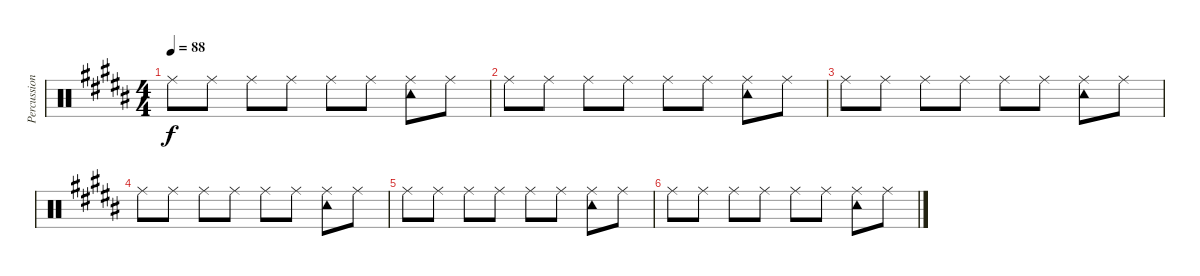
\track ("Percussions" "Percussion") {instrument percussion}
\staff {score}
\articulation defaults
\ts (4 4)
\tempo 88
\clef neutral
\ks b "Ride (middle)".8{dy f} "Ride (middle)".8 "Ride (middle)".8 "Ride (middle)".8 "Ride (middle)".8 "Ride (middle)".8
("Ride (middle)" "Tambourine (hit)").8 "Ride (middle)".8 |
"Ride (middle)".8 "Ride (middle)".8 "Ride (middle)".8 "Ride (middle)".8 "Ride (middle)".8 "Ride (middle)".8 ("Ride (middle)" "Tambourine (hit)").8 "Ride (middle)".8 |
"Ride (middle)".8 "Ride (middle)".8 "Ride (middle)".8 "Ride (middle)".8 "Ride (middle)".8 "Ride (middle)".8 ("Ride (middle)" "Tambourine (hit)").8 "Ride (middle)".8 |
"Ride (middle)".8 "Ride (middle)".8 "Ride (middle)".8 "Ride (middle)".8 "Ride (middle)".8 "Ride (middle)".8 ("Ride (middle)" "Tambourine (hit)").8 "Ride (middle)".8 |
"Ride (middle)".8 "Ride (middle)".8 "Ride (middle)".8 "Ride (middle)".8 "Ride (middle)".8 "Ride (middle)".8 ("Ride (middle)" "Tambourine (hit)").8 "Ride (middle)".8 |
"Ride (middle)".8 "Ride (middle)".8 "Ride (middle)".8 "Ride (middle)".8 "Ride (middle)".8 "Ride (middle)".8 ("Ride (middle)" "Tambourine (hit)").8 "Ride (middle)".8
